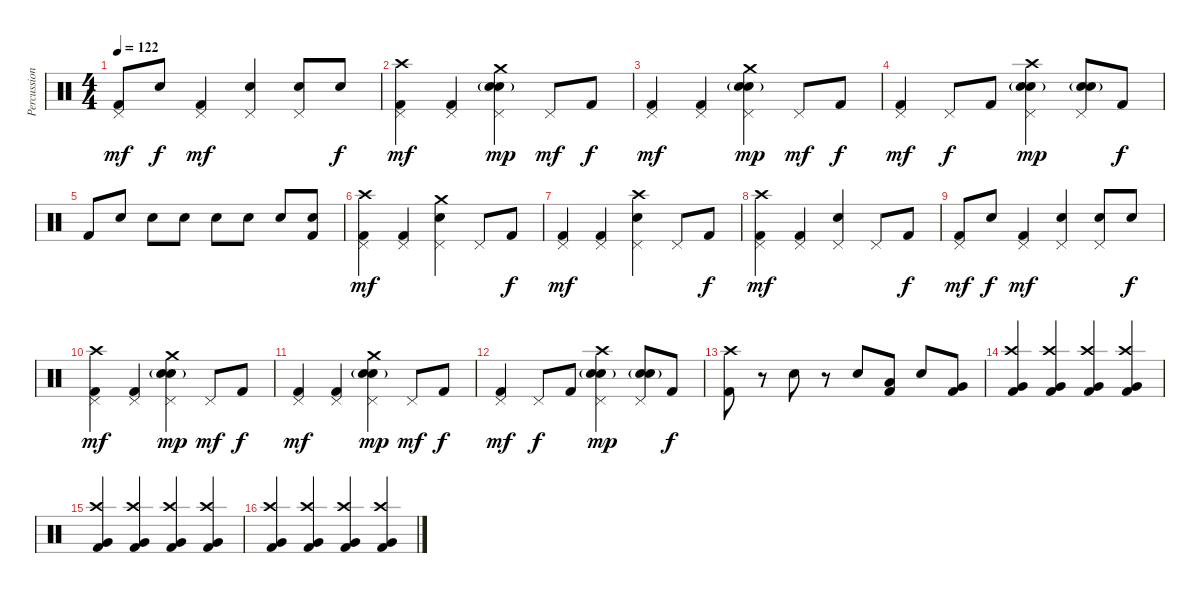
\track ("Percussion" "Percussion") {instrument percussion}
\staff {score}
\articulation defaults
\ts (4 4)
\tempo 122
\clef neutral
\ks c
("Pedal Hi-Hat (hit)" "Kick (hit) 2").8{dy mf} "Snare (hit) 2".8{dy f} ("Pedal Hi-Hat (hit)" "Kick (hit) 2").4{dy mf} ("Pedal Hi-Hat (hit)" "Snare (hit) 2").4 ("Pedal Hi-Hat (hit)" "Electric Snare (hit)").8 "Electric Snare (hit)".8{dy f} |
("Pedal Hi-Hat (hit)" "Crash high (hit)" "Kick (hit) 2").4{dy mf} ("Pedal Hi-Hat (hit)" "Kick (hit) 2").4 ("Pedal Hi-Hat (hit)" "Crash medium (hit)" "Electric Snare (hit)" "Snare (hit) 2"{g}).4{dy mp} "Pedal Hi-Hat (hit)".8{dy mf} "Kick (hit) 2".8{dy f} |
("Pedal Hi-Hat (hit)" "Kick (hit) 2").4{dy mf} ("Pedal Hi-Hat (hit)" "Kick (hit) 2").4 ("Pedal Hi-Hat (hit)" "Crash medium (hit)" "Electric Snare (hit)" "Snare (hit) 2"{g}).4{dy mp} "Pedal Hi-Hat (hit)".8{dy mf} "Kick (hit) 2".8{dy f} |
("Pedal Hi-Hat (hit)" "Kick (hit) 2").4{dy mf} "Pedal Hi-Hat (hit)".8{dy f} "Kick (hit) 2".8 ("Pedal Hi-Hat (hit)" "Crash high (hit)" "Electric Snare (hit)" "Snare (hit) 2"{g}).4{dy mp} ("Pedal Hi-Hat (hit)" "Electric Snare (hit)" "Snare (hit) 2"{g}).8 "Kick (hit) 2".8{dy f} |
"Kick (hit) 2".8 "Snare (hit) 2".8 "Snare (hit) 2".8 "Snare (hit) 2".8 "Snare (hit) 2".8 "Snare (hit) 2".8 "Snare (hit) 2".8 ("Snare (hit) 2" "Kick (hit) 2").8 |
("Pedal Hi-Hat (hit)" "Crash high (hit)" "Kick (hit) 2").4{dy mf} ("Pedal Hi-Hat (hit)" "Kick (hit) 2").4 ("Pedal Hi-Hat (hit)" "Crash medium (hit)" "Electric Snare (hit)").4 "Pedal Hi-Hat (hit)".8 "Kick (hit) 2".8{dy f} |
("Pedal Hi-Hat (hit)" "Kick (hit) 2").4{dy mf} ("Pedal Hi-Hat (hit)" "Kick (hit) 2").4 ("Pedal Hi-Hat (hit)" "Crash high (hit)" "Electric Snare (hit)").4 "Pedal Hi-Hat (hit)".8 "Kick (hit) 2".8{dy f} |
("Pedal Hi-Hat (hit)" "Crash high (hit)" "Kick (hit) 2").4{dy mf} ("Pedal Hi-Hat (hit)" "Kick (hit) 2").4 ("Pedal Hi-Hat (hit)" "Electric Snare (hit)").4 "Pedal Hi-Hat (hit)".8 "Kick (hit) 2".8{dy f} |
("Pedal Hi-Hat (hit)" "Kick (hit) 2").8{dy mf} "Snare (hit) 2".8{dy f} ("Pedal Hi-Hat (hit)" "Kick (hit) 2").4{dy mf} ("Pedal Hi-Hat (hit)" "Snare (hit) 2").4 ("Pedal Hi-Hat (hit)" "Electric Snare (hit)").8 "Electric Snare (hit)".8{dy f} |
("Pedal Hi-Hat (hit)" "Crash high (hit)" "Kick (hit) 2").4{dy mf} ("Pedal Hi-Hat (hit)" "Kick (hit) 2").4 ("Pedal Hi-Hat (hit)" "Crash medium (hit)" "Electric Snare (hit)" "Snare (hit) 2"{g}).4{dy mp} "Pedal Hi-Hat (hit)".8{dy mf} "Kick (hit) 2".8{dy f} |
("Pedal Hi-Hat (hit)" "Kick (hit) 2").4{dy mf} ("Pedal Hi-Hat (hit)" "Kick (hit) 2").4 ("Pedal Hi-Hat (hit)" "Crash medium (hit)" "Electric Snare (hit)" "Snare (hit) 2"{g}).4{dy mp} "Pedal Hi-Hat (hit)".8{dy mf} "Kick (hit) 2".8{dy f} |
("Pedal Hi-Hat (hit)" "Kick (hit) 2").4{dy mf} "Pedal Hi-Hat (hit)".8{dy f} "Kick (hit) 2".8 ("Pedal Hi-Hat (hit)" "Crash high (hit)" "Electric Snare (hit)" "Snare (hit) 2"{g}).4{dy mp} ("Pedal Hi-Hat (hit)" "Electric Snare (hit)" "Snare (hit) 2"{g}).8 "Kick (hit) 2".8{dy f} |
("Crash high (hit)" "Kick (hit) 2").8 r.8 "Snare (hit) 2".8 r.8 "Snare (hit) 2".8 ("Low Tom (hit)" "Kick (hit) 2").8 "Snare (hit) 2".8 ("Very Low Tom (hit)" "Kick (hit) 2").8 |
("Crash high (hit)" "Very Low Tom (hit)" "Kick (hit) 2").4 ("Crash high (hit)" "Very Low Tom (hit)" "Kick (hit) 2").4 ("Crash high (hit)" "Very Low Tom (hit)" "Kick (hit) 2").4 ("Crash high (hit)" "Very Low Tom (hit)" "Kick (hit) 2").4 |
("Crash high (hit)" "Very Low Tom (hit)" "Kick (hit) 2").4 ("Crash high (hit)" "Very Low Tom (hit)" "Kick (hit) 2").4 ("Crash high (hit)" "Very Low Tom (hit)" "Kick (hit) 2").4 ("Crash high (hit)" "Very Low Tom (hit)" "Kick (hit) 2").4 |
("Crash high (hit)" "Very Low Tom (hit)" "Kick (hit) 2").4 ("Crash high (hit)" "Very Low Tom (hit)" "Kick (hit) 2").4 ("Crash high (hit)" "Very Low Tom (hit)" "Kick (hit) 2").4 ("Crash high (hit)" "Very Low Tom (hit)" "Kick (hit) 2").4
